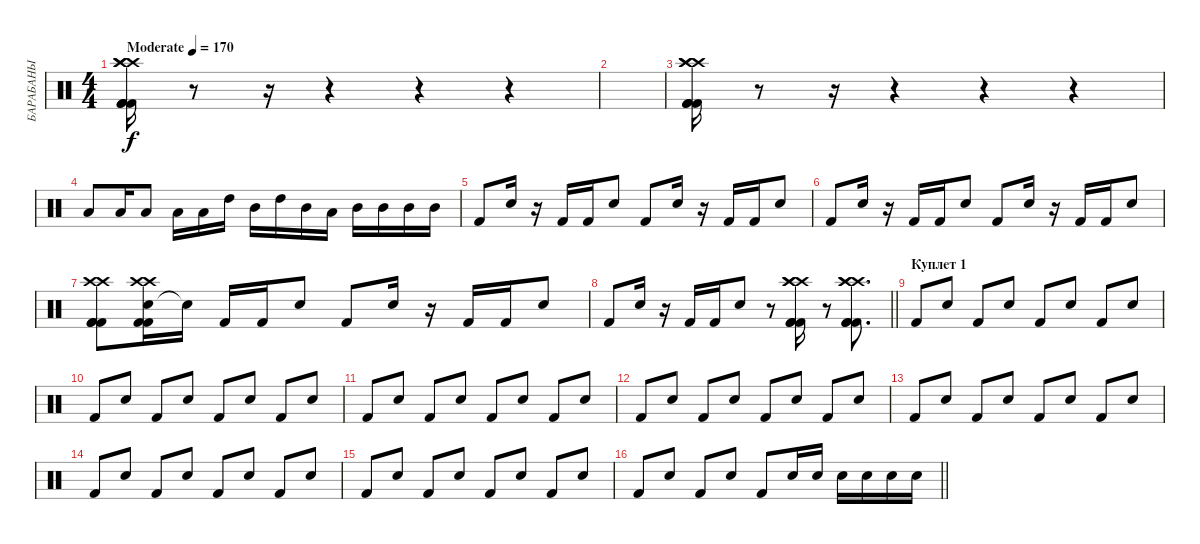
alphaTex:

\track ("БАРАБАНЫ" "БАРАБАНЫ") {instrument percussion}
\staff {score}
\articulation defaults
\ts (4 4)
\tempo (170 "Moderate")
\clef neutral
\ks c
("Kick (hit) 2" "Crash high (hit)" "Kick (hit) 2" "Crash high (hit)" "Kick (hit) 2" "Crash high (hit)").16{dy f} r.8 r.16 r.4 r.4 r.4 |
|
("Kick (hit) 2" "Crash high (hit)" "Kick (hit) 2" "Crash high (hit)" "Kick (hit) 2" "Crash high (hit)").16 r.8 r.16 r.4 r.4 r.4 |
"Low Tom (hit)".8 "Low Tom (hit)".16 "Low Tom (hit)".8 "Low Tom (hit)".16 "Low Tom (hit)".16 "High Tom (hit)".16 "Mid Tom (hit)".16 "High Tom (hit)".16 "Mid Tom (hit)".16 "Low Tom (hit)".16 "Mid Tom (hit)".16 "Mid Tom (hit)".16 "Mid Tom (hit)".16 "Mid Tom (hit)".16 |
"Kick (hit) 2".8 "Electric Snare (hit)".16 r.16 "Kick (hit) 2".16 "Kick (hit) 2".16 "Electric Snare (hit)".8 "Kick (hit) 2".8 "Electric Snare (hit)".16 r.16 "Kick (hit) 2".16 "Kick (hit) 2".16 "Electric Snare (hit)".8 |
"Kick (hit) 2".8 "Electric Snare (hit)".16 r.16 "Kick (hit) 2".16 "Kick (hit) 2".16 "Electric Snare (hit)".8 "Kick (hit) 2".8 "Electric Snare (hit)".16 r.16 "Kick (hit) 2".16 "Kick (hit) 2".16 "Electric Snare (hit)".8 |
("Kick (hit) 2" "Crash high (hit)" "Kick (hit) 2" "Kick (hit) 2" "Crash high (hit)").8 ("Electric Snare (hit)" "Crash high (hit)" "Kick (hit) 2" "Kick (hit) 2" "Crash high (hit)").16 "Snare (hit)"{t}.16 "Kick (hit) 2".16 "Kick (hit) 2".16 "Electric Snare (hit)".8 "Kick (hit) 2".8 "Electric Snare (hit)".16 r.16 "Kick (hit) 2".16 "Kick (hit) 2".16 "Electric Snare (hit)".8 |
\barLineRight lightlight "Kick (hit) 2".8 "Electric Snare (hit)".16
r.16 "Kick (hit) 2".16 "Kick (hit) 2".16 "Electric Snare (hit)".8 r.8 ("Kick (hit) 2" "Crash high (hit)" "Kick (hit) 2" "Crash high (hit)" "Kick (hit) 2" "Crash high (hit)").16 r.8 ("Kick (hit) 2" "Crash high (hit)" "Kick (hit) 2" "Crash high (hit)" "Kick (hit) 2" "Crash high (hit)").8{d} |
\section ("" "Куплет 1")
"Kick (hit) 2".8 "Electric Snare (hit)".8 "Kick (hit) 2".8 "Electric Snare (hit)".8 "Kick (hit) 2".8 "Electric Snare (hit)".8 "Kick (hit) 2".8 "Electric Snare (hit)".8 |
"Kick (hit) 2".8 "Electric Snare (hit)".8 "Kick (hit) 2".8 "Electric Snare (hit)".8 "Kick (hit) 2".8 "Electric Snare (hit)".8 "Kick (hit) 2".8 "Electric Snare (hit)".8 |
"Kick (hit) 2".8 "Electric Snare (hit)".8 "Kick (hit) 2".8 "Electric Snare (hit)".8 "Kick (hit) 2".8 "Electric Snare (hit)".8 "Kick (hit) 2".8 "Electric Snare (hit)".8 |
"Kick (hit) 2".8 "Electric Snare (hit)".8 "Kick (hit) 2".8 "Electric Snare (hit)".8 "Kick (hit) 2".8 "Electric Snare (hit)".8 "Kick (hit) 2".8 "Electric Snare (hit)".8 |
"Kick (hit) 2".8 "Electric Snare (hit)".8 "Kick (hit) 2".8 "Electric Snare (hit)".8 "Kick (hit) 2".8 "Electric Snare (hit)".8 "Kick (hit) 2".8 "Electric Snare (hit)".8 |
"Kick (hit) 2".8 "Electric Snare (hit)".8 "Kick (hit) 2".8 "Electric Snare (hit)".8 "Kick (hit) 2".8 "Electric Snare (hit)".8 "Kick (hit) 2".8 "Electric Snare (hit)".8 |
"Kick (hit) 2".8 "Electric Snare (hit)".8 "Kick (hit) 2".8 "Electric Snare (hit)".8 "Kick (hit) 2".8 "Electric Snare (hit)".8 "Kick (hit) 2".8 "Electric Snare (hit)".8 |
\barLineRight lightlight "Kick (hit) 2".8 "Electric Snare (hit)".8 "Kick (hit) 2".8 "Electric Snare (hit)".8 "Kick (hit) 2".8 "Electric Snare (hit)".16 "Electric Snare (hit)".16 "Electric Snare (hit)".16 "Electric Snare (hit)".16 "Electric Snare (hit)".16 "Electric Snare (hit)".16
